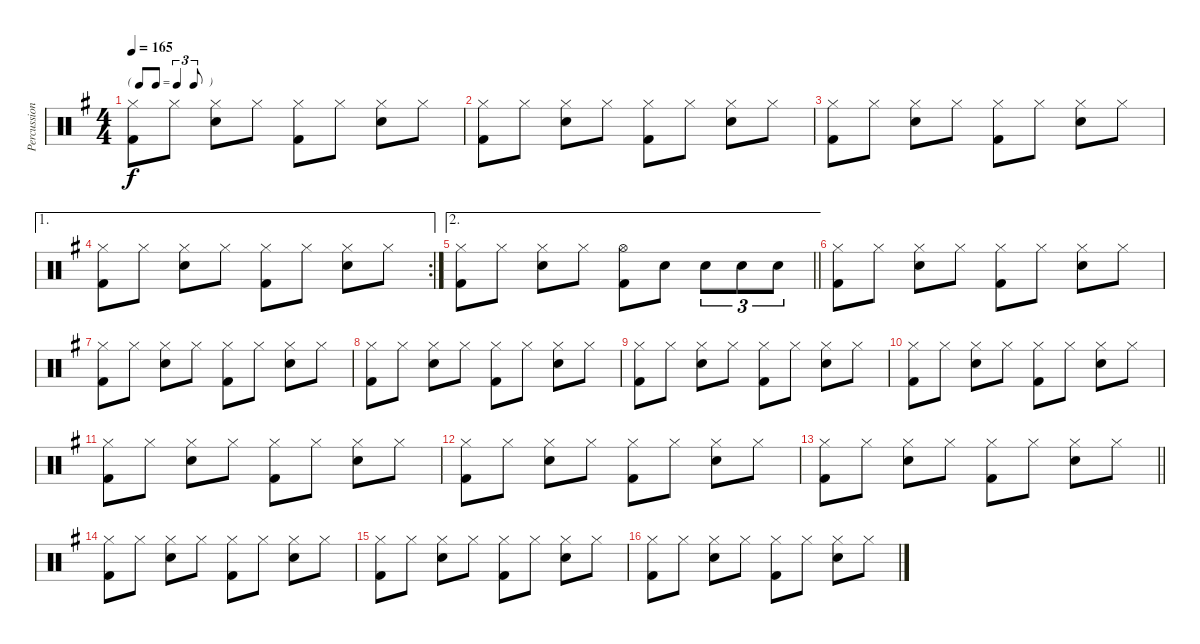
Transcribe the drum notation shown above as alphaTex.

\track ("Percussion" "Percussion") {instrument percussion}
\staff {score}
\articulation defaults
\ts (4 4)
\tf triplet8th
\tempo 165
\clef neutral
\ks g
("Hi-Hat (closed)" "Kick (hit) 2").8{dy f} "Hi-Hat (closed)".8 ("Hi-Hat (closed)" "Snare (hit) 2").8 "Hi-Hat (closed)".8 ("Hi-Hat (closed)" "Kick (hit) 2").8 "Hi-Hat (closed)".8 ("Hi-Hat (closed)" "Snare (hit) 2").8 "Hi-Hat (closed)".8 |
("Hi-Hat (closed)" "Kick (hit) 2").8 "Hi-Hat (closed)".8 ("Hi-Hat (closed)" "Snare (hit) 2").8 "Hi-Hat (closed)".8 ("Hi-Hat (closed)" "Kick (hit) 2").8 "Hi-Hat (closed)".8 ("Hi-Hat (closed)" "Snare (hit) 2").8 "Hi-Hat (closed)".8 |
("Hi-Hat (closed)" "Kick (hit) 2").8 "Hi-Hat (closed)".8 ("Hi-Hat (closed)" "Snare (hit) 2").8 "Hi-Hat (closed)".8 ("Hi-Hat (closed)" "Kick (hit) 2").8 "Hi-Hat (closed)".8 ("Hi-Hat (closed)" "Snare (hit) 2").8 "Hi-Hat (closed)".8 |
\ae 1
\rc 2
("Hi-Hat (closed)" "Kick (hit) 2").8 "Hi-Hat (closed)".8 ("Hi-Hat (closed)" "Snare (hit) 2").8 "Hi-Hat (closed)".8 ("Hi-Hat (closed)" "Kick (hit) 2").8 "Hi-Hat (closed)".8 ("Hi-Hat (closed)" "Snare (hit) 2").8 "Hi-Hat (closed)".8 |
\ae 2
\barLineRight lightlight
("Hi-Hat (closed)" "Kick (hit) 2").8 "Hi-Hat (closed)".8 ("Hi-Hat (closed)" "Snare (hit) 2").8 "Hi-Hat (closed)".8 ("Hi-Hat (open)" "Kick (hit) 2").8 "Snare (hit) 2".8 "Snare (hit) 2".8{tu (3 2)} "Snare (hit) 2".8{tu (3 2)} "Snare (hit) 2".8{tu (3 2)} |
("Hi-Hat (closed)" "Kick (hit) 2").8 "Hi-Hat (closed)".8 ("Hi-Hat (closed)" "Snare (hit) 2").8 "Hi-Hat (closed)".8 ("Hi-Hat (closed)" "Kick (hit) 2").8 "Hi-Hat (closed)".8 ("Hi-Hat (closed)" "Snare (hit) 2").8 "Hi-Hat (closed)".8 |
("Hi-Hat (closed)" "Kick (hit) 2").8 "Hi-Hat (closed)".8 ("Hi-Hat (closed)" "Snare (hit) 2").8 "Hi-Hat (closed)".8 ("Hi-Hat (closed)" "Kick (hit) 2").8 "Hi-Hat (closed)".8 ("Hi-Hat (closed)" "Snare (hit) 2").8 "Hi-Hat (closed)".8 |
("Hi-Hat (closed)" "Kick (hit) 2").8 "Hi-Hat (closed)".8 ("Hi-Hat (closed)" "Snare (hit) 2").8 "Hi-Hat (closed)".8 ("Hi-Hat (closed)" "Kick (hit) 2").8 "Hi-Hat (closed)".8 ("Hi-Hat (closed)" "Snare (hit) 2").8 "Hi-Hat (closed)".8 |
("Hi-Hat (closed)" "Kick (hit) 2").8 "Hi-Hat (closed)".8 ("Hi-Hat (closed)" "Snare (hit) 2").8 "Hi-Hat (closed)".8 ("Hi-Hat (closed)" "Kick (hit) 2").8 "Hi-Hat (closed)".8 ("Hi-Hat (closed)" "Snare (hit) 2").8 "Hi-Hat (closed)".8 |
("Hi-Hat (closed)" "Kick (hit) 2").8 "Hi-Hat (closed)".8 ("Hi-Hat (closed)" "Snare (hit) 2").8 "Hi-Hat (closed)".8 ("Hi-Hat (closed)" "Kick (hit) 2").8 "Hi-Hat (closed)".8 ("Hi-Hat (closed)" "Snare (hit) 2").8 "Hi-Hat (closed)".8 |
("Hi-Hat (closed)" "Kick (hit) 2").8 "Hi-Hat (closed)".8 ("Hi-Hat (closed)" "Snare (hit) 2").8 "Hi-Hat (closed)".8 ("Hi-Hat (closed)" "Kick (hit) 2").8 "Hi-Hat (closed)".8 ("Hi-Hat (closed)" "Snare (hit) 2").8 "Hi-Hat (closed)".8 |
("Hi-Hat (closed)" "Kick (hit) 2").8 "Hi-Hat (closed)".8 ("Hi-Hat (closed)" "Snare (hit) 2").8 "Hi-Hat (closed)".8 ("Hi-Hat (closed)" "Kick (hit) 2").8 "Hi-Hat (closed)".8 ("Hi-Hat (closed)" "Snare (hit) 2").8 "Hi-Hat (closed)".8 |
\barLineRight lightlight
("Hi-Hat (closed)" "Kick (hit) 2").8 "Hi-Hat (closed)".8 ("Hi-Hat (closed)" "Snare (hit) 2").8 "Hi-Hat (closed)".8 ("Hi-Hat (closed)" "Kick (hit) 2").8 "Hi-Hat (closed)".8 ("Hi-Hat (closed)" "Snare (hit) 2").8 "Hi-Hat (closed)".8 |
("Hi-Hat (closed)" "Kick (hit) 2").8 "Hi-Hat (closed)".8 ("Hi-Hat (closed)" "Snare (hit) 2").8 "Hi-Hat (closed)".8 ("Hi-Hat (closed)" "Kick (hit) 2").8 "Hi-Hat (closed)".8 ("Hi-Hat (closed)" "Snare (hit) 2").8 "Hi-Hat (closed)".8 |
("Hi-Hat (closed)" "Kick (hit) 2").8 "Hi-Hat (closed)".8 ("Hi-Hat (closed)" "Snare (hit) 2").8 "Hi-Hat (closed)".8 ("Hi-Hat (closed)" "Kick (hit) 2").8 "Hi-Hat (closed)".8 ("Hi-Hat (closed)" "Snare (hit) 2").8 "Hi-Hat (closed)".8 |
("Hi-Hat (closed)" "Kick (hit) 2").8 "Hi-Hat (closed)".8 ("Hi-Hat (closed)" "Snare (hit) 2").8 "Hi-Hat (closed)".8 ("Hi-Hat (closed)" "Kick (hit) 2").8 "Hi-Hat (closed)".8 ("Hi-Hat (closed)" "Snare (hit) 2").8 "Hi-Hat (closed)".8
